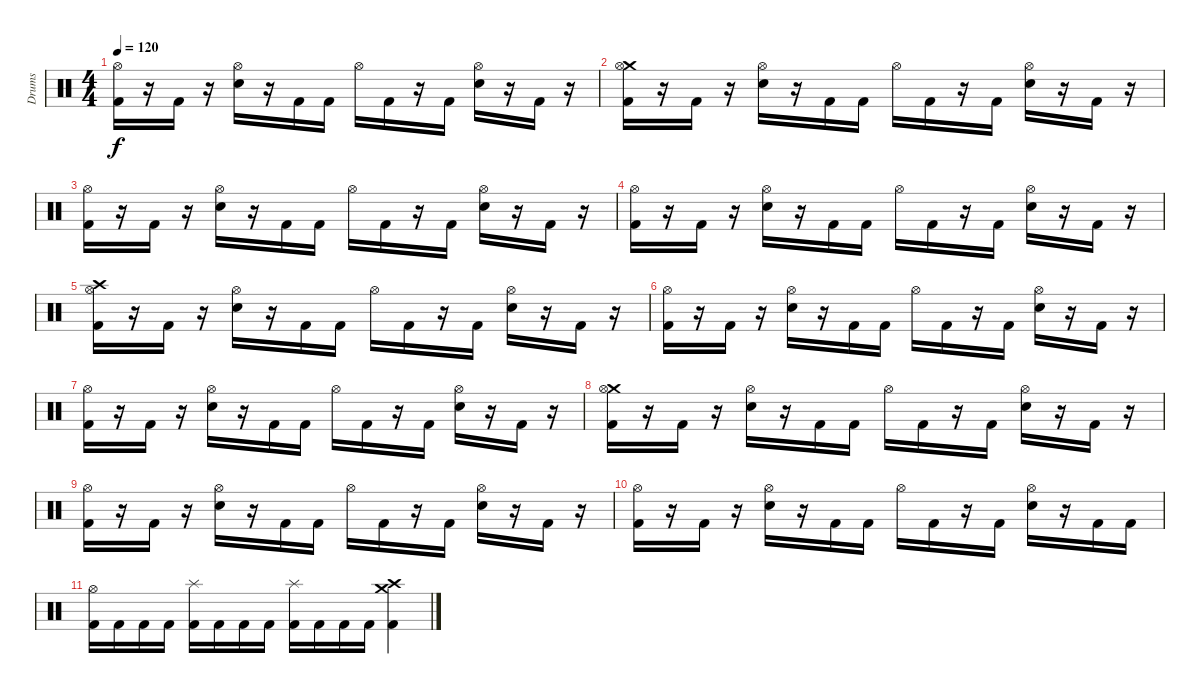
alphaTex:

\track ("Drums" "Drums") {instrument percussion}
\staff {score}
\articulation defaults
\ts (4 4)
\tempo 120
\clef neutral
\ks c
("Hi-Hat (open)" "Kick (hit) 2").16{dy f} r.16 "Kick (hit) 2".16 r.16 ("Hi-Hat (open)" "Electric Snare (hit)").16 r.16 "Kick (hit) 2".16 "Kick (hit) 2".16 "Hi-Hat (open)".16 "Kick (hit) 2".16 r.16 "Kick (hit) 2".16 ("Hi-Hat (open)" "Electric Snare (hit)").16 r.16 "Kick (hit) 2".16 r.16 |
("Crash medium (hit)" "Hi-Hat (open)" "Kick (hit) 2").16 r.16 "Kick (hit) 2".16 r.16 ("Hi-Hat (open)" "Electric Snare (hit)").16 r.16 "Kick (hit) 2".16 "Kick (hit) 2".16 "Hi-Hat (open)".16 "Kick (hit) 2".16 r.16 "Kick (hit) 2".16 ("Hi-Hat (open)" "Electric Snare (hit)").16 r.16 "Kick (hit) 2".16 r.16 |
("Hi-Hat (open)" "Kick (hit) 2").16 r.16 "Kick (hit) 2".16 r.16 ("Hi-Hat (open)" "Electric Snare (hit)").16 r.16 "Kick (hit) 2".16 "Kick (hit) 2".16 "Hi-Hat (open)".16 "Kick (hit) 2".16 r.16 "Kick (hit) 2".16 ("Hi-Hat (open)" "Electric Snare (hit)").16 r.16 "Kick (hit) 2".16 r.16 |
("Hi-Hat (open)" "Kick (hit) 2").16 r.16 "Kick (hit) 2".16 r.16 ("Hi-Hat (open)" "Electric Snare (hit)").16 r.16 "Kick (hit) 2".16 "Kick (hit) 2".16 "Hi-Hat (open)".16 "Kick (hit) 2".16 r.16 "Kick (hit) 2".16 ("Hi-Hat (open)" "Electric Snare (hit)").16 r.16 "Kick (hit) 2".16 r.16 |
("Crash high (hit)" "Hi-Hat (open)" "Kick (hit) 2").16 r.16 "Kick (hit) 2".16 r.16 ("Hi-Hat (open)" "Electric Snare (hit)").16 r.16 "Kick (hit) 2".16 "Kick (hit) 2".16 "Hi-Hat (open)".16 "Kick (hit) 2".16 r.16 "Kick (hit) 2".16 ("Hi-Hat (open)" "Electric Snare (hit)").16 r.16 "Kick (hit) 2".16 r.16 |
("Hi-Hat (open)" "Kick (hit) 2").16 r.16 "Kick (hit) 2".16 r.16 ("Hi-Hat (open)" "Electric Snare (hit)").16 r.16 "Kick (hit) 2".16 "Kick (hit) 2".16 "Hi-Hat (open)".16 "Kick (hit) 2".16 r.16 "Kick (hit) 2".16 ("Hi-Hat (open)" "Electric Snare (hit)").16 r.16 "Kick (hit) 2".16 r.16 |
("Hi-Hat (open)" "Kick (hit) 2").16 r.16 "Kick (hit) 2".16 r.16 ("Hi-Hat (open)" "Electric Snare (hit)").16 r.16 "Kick (hit) 2".16 "Kick (hit) 2".16 "Hi-Hat (open)".16 "Kick (hit) 2".16 r.16 "Kick (hit) 2".16 ("Hi-Hat (open)" "Electric Snare (hit)").16 r.16 "Kick (hit) 2".16 r.16 |
("Crash medium (hit)" "Hi-Hat (open)" "Kick (hit) 2").16 r.16 "Kick (hit) 2".16 r.16 ("Hi-Hat (open)" "Electric Snare (hit)").16 r.16 "Kick (hit) 2".16 "Kick (hit) 2".16 "Hi-Hat (open)".16 "Kick (hit) 2".16 r.16 "Kick (hit) 2".16 ("Hi-Hat (open)" "Electric Snare (hit)").16 r.16 "Kick (hit) 2".16 r.16 |
("Hi-Hat (open)" "Kick (hit) 2").16 r.16 "Kick (hit) 2".16 r.16 ("Hi-Hat (open)" "Electric Snare (hit)").16 r.16 "Kick (hit) 2".16 "Kick (hit) 2".16 "Hi-Hat (open)".16 "Kick (hit) 2".16 r.16 "Kick (hit) 2".16 ("Hi-Hat (open)" "Electric Snare (hit)").16 r.16 "Kick (hit) 2".16 r.16 |
("Hi-Hat (open)" "Kick (hit) 2").16 r.16 "Kick (hit) 2".16 r.16 ("Hi-Hat (open)" "Electric Snare (hit)").16 r.16 "Kick (hit) 2".16 "Kick (hit) 2".16 "Hi-Hat (open)".16 "Kick (hit) 2".16 r.16 "Kick (hit) 2".16 ("Hi-Hat (open)" "Electric Snare (hit)").16 r.16 "Kick (hit) 2".16 "Kick (hit) 2".16 |
("Hi-Hat (open)" "Kick (hit) 2").16 "Kick (hit) 2".16 "Kick (hit) 2".16 "Kick (hit) 2".16 ("Splash (hit)" "Kick (hit) 2").16 "Kick (hit) 2".16 "Kick (hit) 2".16 "Kick (hit) 2".16 ("Splash (hit)" "Kick (hit) 2").16 "Kick (hit) 2".16 "Kick (hit) 2".16 "Kick (hit) 2".16 ("Crash medium (hit)" "Crash high (hit)" "Kick (hit) 2").4
